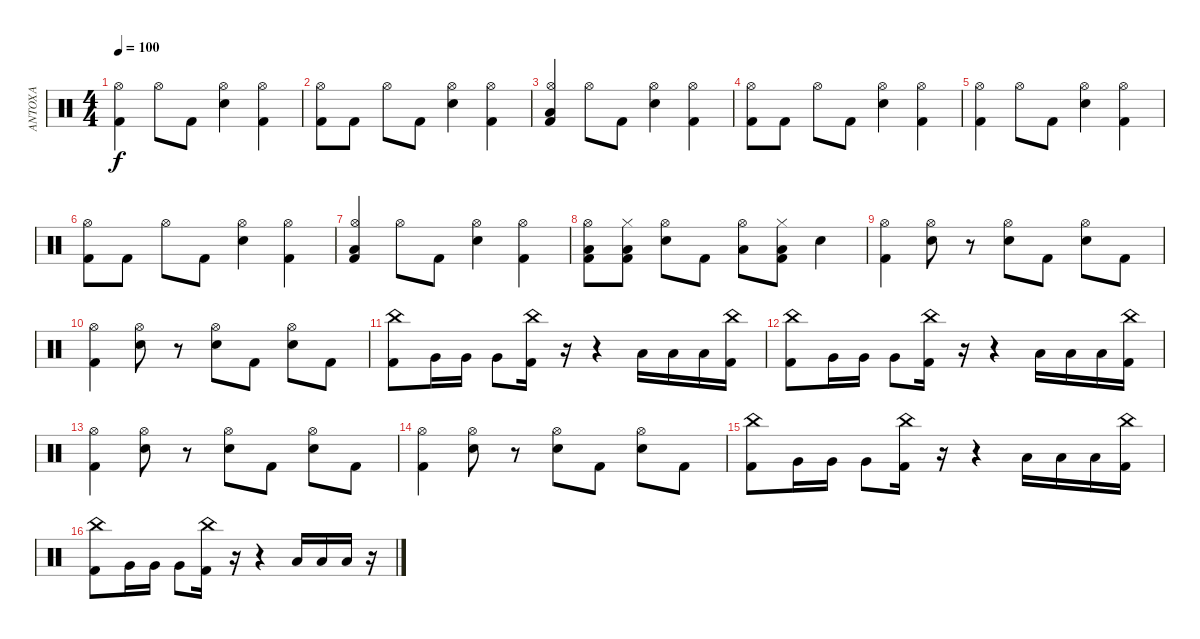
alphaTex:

\track ("ANTOXA" "ANTOXA") {instrument percussion}
\staff {score}
\articulation defaults
\ts (4 4)
\tempo 100
\clef neutral
\ks c
("Kick (hit) 2" "Hi-Hat (open)").4{dy f} "Hi-Hat (open)".8 "Kick (hit) 2".8 ("Hi-Hat (open)" "Electric Snare (hit)").4 ("Kick (hit) 2" "Hi-Hat (open)").4 |
("Kick (hit) 2" "Hi-Hat (open)").8 "Kick (hit) 2".8 "Hi-Hat (open)".8 "Kick (hit) 2".8 ("Hi-Hat (open)" "Electric Snare (hit)").4 ("Kick (hit) 2" "Hi-Hat (open)").4 |
("Kick (hit) 2" "Hi-Hat (open)" "Low Floor Tom (hit)").4 "Hi-Hat (open)".8 "Kick (hit) 2".8 ("Hi-Hat (open)" "Electric Snare (hit)").4 ("Kick (hit) 2" "Hi-Hat (open)").4 |
("Kick (hit) 2" "Hi-Hat (open)").8 "Kick (hit) 2".8 "Hi-Hat (open)".8 "Kick (hit) 2".8 ("Hi-Hat (open)" "Electric Snare (hit)").4 ("Kick (hit) 2" "Hi-Hat (open)").4 |
("Kick (hit) 2" "Hi-Hat (open)").4 "Hi-Hat (open)".8 "Kick (hit) 2".8 ("Hi-Hat (open)" "Electric Snare (hit)").4 ("Kick (hit) 2" "Hi-Hat (open)").4 |
("Kick (hit) 2" "Hi-Hat (open)").8 "Kick (hit) 2".8 "Hi-Hat (open)".8 "Kick (hit) 2".8 ("Hi-Hat (open)" "Electric Snare (hit)").4 ("Kick (hit) 2" "Hi-Hat (open)").4 |
("Kick (hit) 2" "Hi-Hat (open)" "Low Floor Tom (hit)").4 "Hi-Hat (open)".8 "Kick (hit) 2".8 ("Hi-Hat (open)" "Electric Snare (hit)").4 ("Kick (hit) 2" "Hi-Hat (open)").4 |
("Kick (hit) 2" "Hi-Hat (open)" "Low Floor Tom (hit)").8 ("Kick (hit) 2" "Hi-Hat (closed)" "Low Floor Tom (hit)").8 ("Hi-Hat (open)" "Electric Snare (hit)").8 "Kick (hit) 2".8 ("Hi-Hat (open)" "Low Floor Tom (hit)").8 ("Kick (hit) 2" "Hi-Hat (closed)" "Low Floor Tom (hit)").8 "Electric Snare (hit)".4 |
("Kick (hit) 2" "Hi-Hat (open)").4 ("Hi-Hat (open)" "Electric Snare (hit)").8 r.8 ("Hi-Hat (open)" "Electric Snare (hit)").8 "Kick (hit) 2".8 ("Hi-Hat (open)" "Electric Snare (hit)").8 "Kick (hit) 2".8 |
("Kick (hit) 2" "Hi-Hat (open)").4 ("Hi-Hat (open)" "Electric Snare (hit)").8 r.8 ("Hi-Hat (open)" "Electric Snare (hit)").8 "Kick (hit) 2".8 ("Hi-Hat (open)" "Electric Snare (hit)").8 "Kick (hit) 2".8 |
("Kick (hit) 2" "China (hit)").8 "Very Low Tom (hit)".16 "Very Low Tom (hit)".16 "Very Low Tom (hit)".8 ("Kick (hit) 2" "China (hit)").16 r.16 r.4 "Low Floor Tom (hit)".16 "Low Floor Tom (hit)".16 "Low Floor Tom (hit)".16 ("Kick (hit) 2" "China (hit)").16 |
("Kick (hit) 2" "China (hit)").8 "Very Low Tom (hit)".16 "Very Low Tom (hit)".16 "Very Low Tom (hit)".8 ("Kick (hit) 2" "China (hit)").16 r.16 r.4 "Low Floor Tom (hit)".16 "Low Floor Tom (hit)".16 "Low Floor Tom (hit)".16 ("Kick (hit) 2" "China (hit)").16 |
("Kick (hit) 2" "Hi-Hat (open)").4 ("Hi-Hat (open)" "Electric Snare (hit)").8 r.8 ("Hi-Hat (open)" "Electric Snare (hit)").8 "Kick (hit) 2".8 ("Hi-Hat (open)" "Electric Snare (hit)").8 "Kick (hit) 2".8 |
("Kick (hit) 2" "Hi-Hat (open)").4 ("Hi-Hat (open)" "Electric Snare (hit)").8 r.8 ("Hi-Hat (open)" "Electric Snare (hit)").8 "Kick (hit) 2".8 ("Hi-Hat (open)" "Electric Snare (hit)").8 "Kick (hit) 2".8 |
("Kick (hit) 2" "China (hit)").8 "Very Low Tom (hit)".16 "Very Low Tom (hit)".16 "Very Low Tom (hit)".8 ("Kick (hit) 2" "China (hit)").16 r.16 r.4 "Low Floor Tom (hit)".16 "Low Floor Tom (hit)".16 "Low Floor Tom (hit)".16 ("Kick (hit) 2" "China (hit)").16 |
("Kick (hit) 2" "China (hit)").8 "Very Low Tom (hit)".16 "Very Low Tom (hit)".16 "Very Low Tom (hit)".8 ("Kick (hit) 2" "China (hit)").16 r.16 r.4 "Low Floor Tom (hit)".16 "Low Floor Tom (hit)".16 "Low Floor Tom (hit)".16 r.16
